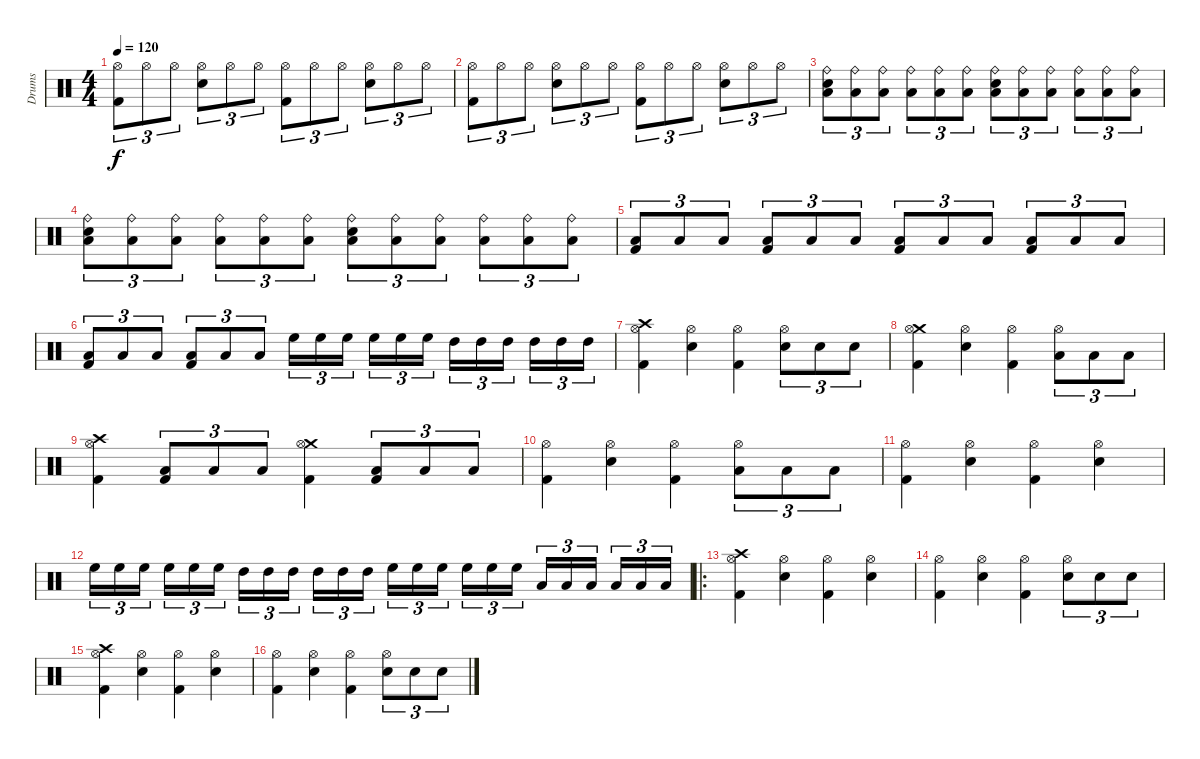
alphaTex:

\track ("Drums" "Drums") {instrument percussion}
\staff {score}
\articulation defaults
\ts (4 4)
\tempo 120
\clef neutral
\ks c
("Hi-Hat (open)" "Kick (hit) 2").8{tu (3 2) dy f} "Hi-Hat (open)".8{tu (3 2)} "Hi-Hat (open)".8{tu (3 2)} ("Hi-Hat (open)" "Snare (hit) 2").8{tu (3 2)} "Hi-Hat (open)".8{tu (3 2)} "Hi-Hat (open)".8{tu (3 2)} ("Hi-Hat (open)" "Kick (hit) 2").8{tu (3 2)} "Hi-Hat (open)".8{tu (3 2)} "Hi-Hat (open)".8{tu (3 2)} ("Hi-Hat (open)" "Snare (hit) 2").8{tu (3 2)} "Hi-Hat (open)".8{tu (3 2)} "Hi-Hat (open)".8{tu (3 2)} |
("Hi-Hat (open)" "Kick (hit) 2").8{tu (3 2)} "Hi-Hat (open)".8{tu (3 2)} "Hi-Hat (open)".8{tu (3 2)} ("Hi-Hat (open)" "Snare (hit) 2").8{tu (3 2)} "Hi-Hat (open)".8{tu (3 2)} "Hi-Hat (open)".8{tu (3 2)} ("Hi-Hat (open)" "Kick (hit) 2").8{tu (3 2)} "Hi-Hat (open)".8{tu (3 2)} "Hi-Hat (open)".8{tu (3 2)} ("Hi-Hat (open)" "Snare (hit) 2").8{tu (3 2)} "Hi-Hat (open)".8{tu (3 2)} "Hi-Hat (open)".8{tu (3 2)} |
("Ride (bell)" "Snare (hit) 2" "Low Floor Tom (hit)").8{tu (3 2)} ("Ride (bell)" "Low Floor Tom (hit)").8{tu (3 2)} ("Ride (bell)" "Low Floor Tom (hit)").8{tu (3 2)} ("Ride (bell)" "Low Floor Tom (hit)").8{tu (3 2)} ("Ride (bell)" "Low Floor Tom (hit)").8{tu (3 2)} ("Ride (bell)" "Low Floor Tom (hit)").8{tu (3 2)} ("Ride (bell)" "Snare (hit) 2" "Low Floor Tom (hit)").8{tu (3 2)} ("Ride (bell)" "Low Floor Tom (hit)").8{tu (3 2)} ("Ride (bell)" "Low Floor Tom (hit)").8{tu (3 2)} ("Ride (bell)" "Low Floor Tom (hit)").8{tu (3 2)} ("Ride (bell)" "Low Floor Tom (hit)").8{tu (3 2)} ("Ride (bell)" "Low Floor Tom (hit)").8{tu (3 2)} |
("Ride (bell)" "Snare (hit) 2" "Low Floor Tom (hit)").8{tu (3 2)} ("Ride (bell)" "Low Floor Tom (hit)").8{tu (3 2)} ("Ride (bell)" "Low Floor Tom (hit)").8{tu (3 2)} ("Ride (bell)" "Low Floor Tom (hit)").8{tu (3 2)} ("Ride (bell)" "Low Floor Tom (hit)").8{tu (3 2)} ("Ride (bell)" "Low Floor Tom (hit)").8{tu (3 2)} ("Ride (bell)" "Snare (hit) 2" "Low Floor Tom (hit)").8{tu (3 2)} ("Ride (bell)" "Low Floor Tom (hit)").8{tu (3 2)} ("Ride (bell)" "Low Floor Tom (hit)").8{tu (3 2)} ("Ride (bell)" "Low Floor Tom (hit)").8{tu (3 2)} ("Ride (bell)" "Low Floor Tom (hit)").8{tu (3 2)} ("Ride (bell)" "Low Floor Tom (hit)").8{tu (3 2)} |
("Kick (hit) 2" "Low Floor Tom (hit)").8{tu (3 2)} "Low Floor Tom (hit)".8{tu (3 2)} "Low Floor Tom (hit)".8{tu (3 2)} ("Kick (hit) 2" "Low Floor Tom (hit)").8{tu (3 2)} "Low Floor Tom (hit)".8{tu (3 2)} "Low Floor Tom (hit)".8{tu (3 2)} ("Kick (hit) 2" "Low Floor Tom (hit)").8{tu (3 2)} "Low Floor Tom (hit)".8{tu (3 2)} "Low Floor Tom (hit)".8{tu (3 2)} ("Kick (hit) 2" "Low Floor Tom (hit)").8{tu (3 2)} "Low Floor Tom (hit)".8{tu (3 2)} "Low Floor Tom (hit)".8{tu (3 2)} |
("Kick (hit) 2" "Low Floor Tom (hit)").8{tu (3 2)} "Low Floor Tom (hit)".8{tu (3 2)} "Low Floor Tom (hit)".8{tu (3 2)} ("Kick (hit) 2" "Low Floor Tom (hit)").8{tu (3 2)} "Low Floor Tom (hit)".8{tu (3 2)} "Low Floor Tom (hit)".8{tu (3 2)} "High Floor Tom (hit)".16{tu (3 2)} "High Floor Tom (hit)".16{tu (3 2)} "High Floor Tom (hit)".16{tu (3 2)} "High Floor Tom (hit)".16{tu (3 2)} "High Floor Tom (hit)".16{tu (3 2)} "High Floor Tom (hit)".16{tu (3 2)} "High Tom (hit)".16{tu (3 2)} "High Tom (hit)".16{tu (3 2)} "High Tom (hit)".16{tu (3 2)} "High Tom (hit)".16{tu (3 2)} "High Tom (hit)".16{tu (3 2)} "High Tom (hit)".16{tu (3 2)} |
("Crash high (hit)" "Hi-Hat (open)" "Kick (hit) 2").4 ("Hi-Hat (open)" "Snare (hit) 2").4 ("Hi-Hat (open)" "Kick (hit) 2").4 ("Hi-Hat (open)" "Snare (hit) 2").8{tu (3 2)} "Snare (hit) 2".8{tu (3 2)} "Snare (hit) 2".8{tu (3 2)} |
("Crash medium (hit)" "Hi-Hat (open)" "Kick (hit) 2").4 ("Hi-Hat (open)" "Snare (hit) 2").4 ("Hi-Hat (open)" "Kick (hit) 2").4 ("Hi-Hat (open)" "Low Floor Tom (hit)").8{tu (3 2)} "Low Floor Tom (hit)".8{tu (3 2)} "Low Floor Tom (hit)".8{tu (3 2)} |
("Crash high (hit)" "Hi-Hat (open)" "Kick (hit) 2").4 ("Low Tom (hit)" "Kick (hit) 2").8{tu (3 2)} "Low Tom (hit)".8{tu (3 2)} "Low Tom (hit)".8{tu (3 2)} ("Crash medium (hit)" "Hi-Hat (open)" "Kick (hit) 2").4 ("Low Floor Tom (hit)" "Kick (hit) 2").8{tu (3 2)} "Low Floor Tom (hit)".8{tu (3 2)} "Low Floor Tom (hit)".8{tu (3 2)} |
("Hi-Hat (open)" "Kick (hit) 2").4 ("Hi-Hat (open)" "Snare (hit) 2").4 ("Hi-Hat (open)" "Kick (hit) 2").4 ("Hi-Hat (open)" "Low Floor Tom (hit)").8{tu (3 2)} "Low Floor Tom (hit)".8{tu (3 2)} "Low Floor Tom (hit)".8{tu (3 2)} |
("Hi-Hat (open)" "Kick (hit) 2").4 ("Hi-Hat (open)" "Snare (hit) 2").4 ("Hi-Hat (open)" "Kick (hit) 2").4 ("Hi-Hat (open)" "Snare (hit) 2").4 |
"High Floor Tom (hit)".16{tu (3 2)} "High Floor Tom (hit)".16{tu (3 2)} "High Floor Tom (hit)".16{tu (3 2)} "High Floor Tom (hit)".16{tu (3 2)} "High Floor Tom (hit)".16{tu (3 2)} "High Floor Tom (hit)".16{tu (3 2)} "High Tom (hit)".16{tu (3 2)} "High Tom (hit)".16{tu (3 2)} "High Tom (hit)".16{tu (3 2)} "High Tom (hit)".16{tu (3 2)} "High Tom (hit)".16{tu (3 2)} "High Tom (hit)".16{tu (3 2)} "High Floor Tom (hit)".16{tu (3 2)} "High Floor Tom (hit)".16{tu (3 2)} "High Floor Tom (hit)".16{tu (3 2)} "High Floor Tom (hit)".16{tu (3 2)} "High Floor Tom (hit)".16{tu (3 2)} "High Floor Tom (hit)".16{tu (3 2)} "Low Tom (hit)".16{tu (3 2)} "Low Tom (hit)".16{tu (3 2)} "Low Tom (hit)".16{tu (3 2)} "Low Tom (hit)".16{tu (3 2)} "Low Tom (hit)".16{tu (3 2)} "Low Tom (hit)".16{tu (3 2)} |
\ro
("Crash high (hit)" "Hi-Hat (open)" "Kick (hit) 2").4 ("Hi-Hat (open)" "Snare (hit) 2").4 ("Hi-Hat (open)" "Kick (hit) 2").4 ("Hi-Hat (open)" "Snare (hit) 2").4 |
("Hi-Hat (open)" "Kick (hit) 2").4 ("Hi-Hat (open)" "Snare (hit) 2").4 ("Hi-Hat (open)" "Kick (hit) 2").4 ("Hi-Hat (open)" "Snare (hit) 2").8{tu (3 2)} "Snare (hit) 2".8{tu (3 2)} "Snare (hit) 2".8{tu (3 2)} |
("Crash high (hit)" "Hi-Hat (open)" "Kick (hit) 2").4 ("Hi-Hat (open)" "Snare (hit) 2").4 ("Hi-Hat (open)" "Kick (hit) 2").4 ("Hi-Hat (open)" "Snare (hit) 2").4 |
("Hi-Hat (open)" "Kick (hit) 2").4 ("Hi-Hat (open)" "Snare (hit) 2").4 ("Hi-Hat (open)" "Kick (hit) 2").4 ("Hi-Hat (open)" "Snare (hit) 2").8{tu (3 2)} "Snare (hit) 2".8{tu (3 2)} "Snare (hit) 2".8{tu (3 2)}
